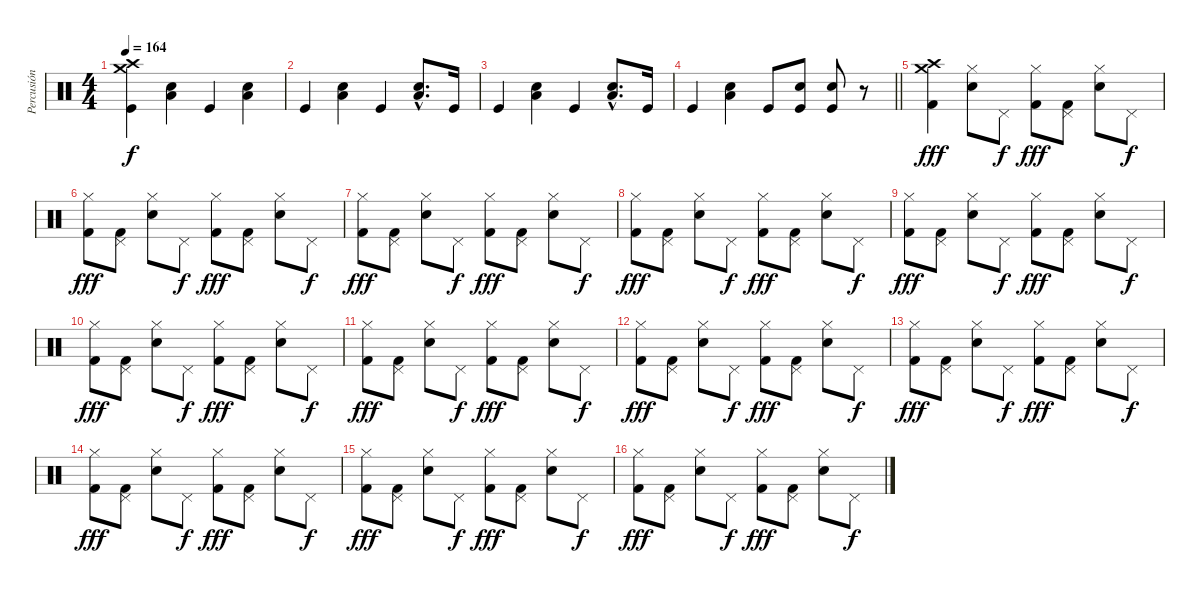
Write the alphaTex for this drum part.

\track ("Percusión" "Percusión") {instrument percussion}
\staff {score}
\articulation defaults
\ts (4 4)
\tempo 164
\clef neutral
\ks c
("Crash medium (hit)" "Crash high (hit)" "Kick (hit)").4{dy f} ("Low Floor Tom (hit)" "Snare (hit) 2").4 "Kick (hit)".4 ("Low Floor Tom (hit)" "Snare (hit) 2").4 |
"Kick (hit)".4 ("Low Floor Tom (hit)" "Snare (hit) 2").4 "Kick (hit)".4 ("Low Floor Tom (hit)"{hac} "Snare (hit) 2"{hac}).8{d} "Kick (hit)".16 |
"Kick (hit)".4 ("Low Floor Tom (hit)" "Snare (hit) 2").4 "Kick (hit)".4 ("Low Floor Tom (hit)"{hac} "Snare (hit) 2"{hac}).8{d} "Kick (hit)".16 |
\barLineRight lightlight "Kick (hit)".4
("Low Floor Tom (hit)" "Snare (hit) 2").4 "Kick (hit)".8 ("Electric Snare (hit)" "Kick (hit)").8 ("Electric Snare (hit)" "Kick (hit)").8 r.8 |
("Crash medium (hit)" "Crash high (hit)" "Kick (hit) 2").4{dy fff} ("Hi-Hat (closed)" "Snare (hit) 2").8 "Pedal Hi-Hat (hit)".8{dy f} ("Hi-Hat (closed)" "Kick (hit) 2").8{dy fff} ("Pedal Hi-Hat (hit)" "Kick (hit) 2").8 ("Hi-Hat (closed)" "Snare (hit) 2").8 "Pedal Hi-Hat (hit)".8{dy f} |
("Hi-Hat (closed)" "Kick (hit) 2").8{dy fff} ("Pedal Hi-Hat (hit)" "Kick (hit) 2").8 ("Hi-Hat (closed)" "Snare (hit) 2").8 "Pedal Hi-Hat (hit)".8{dy f} ("Hi-Hat (closed)" "Kick (hit) 2").8{dy fff} ("Pedal Hi-Hat (hit)" "Kick (hit) 2").8 ("Hi-Hat (closed)" "Snare (hit) 2").8 "Pedal Hi-Hat (hit)".8{dy f} |
("Hi-Hat (closed)" "Kick (hit) 2").8{dy fff} ("Pedal Hi-Hat (hit)" "Kick (hit) 2").8 ("Hi-Hat (closed)" "Snare (hit) 2").8 "Pedal Hi-Hat (hit)".8{dy f} ("Hi-Hat (closed)" "Kick (hit) 2").8{dy fff} ("Pedal Hi-Hat (hit)" "Kick (hit) 2").8 ("Hi-Hat (closed)" "Snare (hit) 2").8 "Pedal Hi-Hat (hit)".8{dy f} |
("Hi-Hat (closed)" "Kick (hit) 2").8{dy fff} ("Pedal Hi-Hat (hit)" "Kick (hit) 2").8 ("Hi-Hat (closed)" "Snare (hit) 2").8 "Pedal Hi-Hat (hit)".8{dy f} ("Hi-Hat (closed)" "Kick (hit) 2").8{dy fff} ("Pedal Hi-Hat (hit)" "Kick (hit) 2").8 ("Hi-Hat (closed)" "Snare (hit) 2").8 "Pedal Hi-Hat (hit)".8{dy f} |
("Hi-Hat (closed)" "Kick (hit) 2").8{dy fff} ("Pedal Hi-Hat (hit)" "Kick (hit) 2").8 ("Hi-Hat (closed)" "Snare (hit) 2").8 "Pedal Hi-Hat (hit)".8{dy f} ("Hi-Hat (closed)" "Kick (hit) 2").8{dy fff} ("Pedal Hi-Hat (hit)" "Kick (hit) 2").8 ("Hi-Hat (closed)" "Snare (hit) 2").8 "Pedal Hi-Hat (hit)".8{dy f} |
("Hi-Hat (closed)" "Kick (hit) 2").8{dy fff} ("Pedal Hi-Hat (hit)" "Kick (hit) 2").8 ("Hi-Hat (closed)" "Snare (hit) 2").8 "Pedal Hi-Hat (hit)".8{dy f} ("Hi-Hat (closed)" "Kick (hit) 2").8{dy fff} ("Pedal Hi-Hat (hit)" "Kick (hit) 2").8 ("Hi-Hat (closed)" "Snare (hit) 2").8 "Pedal Hi-Hat (hit)".8{dy f} |
("Hi-Hat (closed)" "Kick (hit) 2").8{dy fff} ("Pedal Hi-Hat (hit)" "Kick (hit) 2").8 ("Hi-Hat (closed)" "Snare (hit) 2").8 "Pedal Hi-Hat (hit)".8{dy f} ("Hi-Hat (closed)" "Kick (hit) 2").8{dy fff} ("Pedal Hi-Hat (hit)" "Kick (hit) 2").8 ("Hi-Hat (closed)" "Snare (hit) 2").8 "Pedal Hi-Hat (hit)".8{dy f} |
("Hi-Hat (closed)" "Kick (hit) 2").8{dy fff} ("Pedal Hi-Hat (hit)" "Kick (hit) 2").8 ("Hi-Hat (closed)" "Snare (hit) 2").8 "Pedal Hi-Hat (hit)".8{dy f} ("Hi-Hat (closed)" "Kick (hit) 2").8{dy fff} ("Pedal Hi-Hat (hit)" "Kick (hit) 2").8 ("Hi-Hat (closed)" "Snare (hit) 2").8 "Pedal Hi-Hat (hit)".8{dy f} |
("Hi-Hat (closed)" "Kick (hit) 2").8{dy fff} ("Pedal Hi-Hat (hit)" "Kick (hit) 2").8 ("Hi-Hat (closed)" "Snare (hit) 2").8 "Pedal Hi-Hat (hit)".8{dy f} ("Hi-Hat (closed)" "Kick (hit) 2").8{dy fff} ("Pedal Hi-Hat (hit)" "Kick (hit) 2").8 ("Hi-Hat (closed)" "Snare (hit) 2").8 "Pedal Hi-Hat (hit)".8{dy f} |
("Hi-Hat (closed)" "Kick (hit) 2").8{dy fff} ("Pedal Hi-Hat (hit)" "Kick (hit) 2").8 ("Hi-Hat (closed)" "Snare (hit) 2").8 "Pedal Hi-Hat (hit)".8{dy f} ("Hi-Hat (closed)" "Kick (hit) 2").8{dy fff} ("Pedal Hi-Hat (hit)" "Kick (hit) 2").8 ("Hi-Hat (closed)" "Snare (hit) 2").8 "Pedal Hi-Hat (hit)".8{dy f} |
("Hi-Hat (closed)" "Kick (hit) 2").8{dy fff} ("Pedal Hi-Hat (hit)" "Kick (hit) 2").8 ("Hi-Hat (closed)" "Snare (hit) 2").8 "Pedal Hi-Hat (hit)".8{dy f} ("Hi-Hat (closed)" "Kick (hit) 2").8{dy fff} ("Pedal Hi-Hat (hit)" "Kick (hit) 2").8 ("Hi-Hat (closed)" "Snare (hit) 2").8 "Pedal Hi-Hat (hit)".8{dy f} |
("Hi-Hat (closed)" "Kick (hit) 2").8{dy fff} ("Pedal Hi-Hat (hit)" "Kick (hit) 2").8 ("Hi-Hat (closed)" "Snare (hit) 2").8 "Pedal Hi-Hat (hit)".8{dy f} ("Hi-Hat (closed)" "Kick (hit) 2").8{dy fff} ("Pedal Hi-Hat (hit)" "Kick (hit) 2").8 ("Hi-Hat (closed)" "Snare (hit) 2").8 "Pedal Hi-Hat (hit)".8{dy f}
